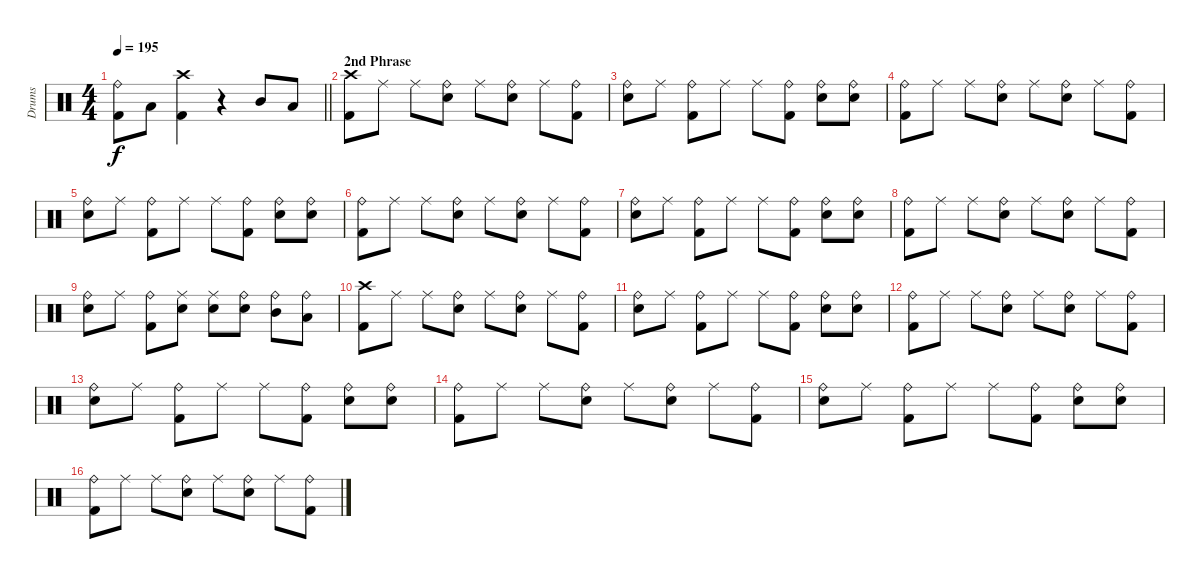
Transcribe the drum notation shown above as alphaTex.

\track ("Drums" "Drums") {instrument percussion}
\staff {score}
\articulation defaults
\ts (4 4)
\tempo 195
\clef neutral
\barLineRight lightlight
\ks c
("Ride (bell)" "Kick (hit) 2").8{dy f} "Low Floor Tom (hit)".8 ("Crash high (hit)" "Kick (hit) 2").4 r.4 "Mid Tom (hit)".8 "Low Floor Tom (hit)".8 |
\section ("" "2nd Phrase")
("Crash high (hit)" "Kick (hit) 2").8 "Ride (middle)".8 "Ride (middle)".8 ("Ride (bell)" "Snare (hit) 2").8 "Ride (middle)".8 ("Ride (bell)" "Snare (hit) 2").8 "Ride (middle)".8 ("Ride (bell)" "Kick (hit) 2").8 |
("Ride (bell)" "Snare (hit) 2").8 "Ride (middle)".8 ("Ride (bell)" "Kick (hit) 2").8 "Ride (middle)".8 "Ride (middle)".8 ("Ride (bell)" "Kick (hit) 2").8 ("Ride (bell)" "Snare (hit) 2").8 ("Ride (bell)" "Snare (hit) 2").8 |
("Ride (bell)" "Kick (hit) 2").8 "Ride (middle)".8 "Ride (middle)".8 ("Ride (bell)" "Snare (hit) 2").8 "Ride (middle)".8 ("Ride (bell)" "Snare (hit) 2").8 "Ride (middle)".8 ("Ride (bell)" "Kick (hit) 2").8 |
("Ride (bell)" "Snare (hit) 2").8 "Ride (middle)".8 ("Ride (bell)" "Kick (hit) 2").8 "Ride (middle)".8 "Ride (middle)".8 ("Ride (bell)" "Kick (hit) 2").8 ("Ride (bell)" "Snare (hit) 2").8 ("Ride (bell)" "Snare (hit) 2").8 |
("Ride (bell)" "Kick (hit) 2").8 "Ride (middle)".8 "Ride (middle)".8 ("Ride (bell)" "Snare (hit) 2").8 "Ride (middle)".8 ("Ride (bell)" "Snare (hit) 2").8 "Ride (middle)".8 ("Ride (bell)" "Kick (hit) 2").8 |
("Ride (bell)" "Snare (hit) 2").8 "Ride (middle)".8 ("Ride (bell)" "Kick (hit) 2").8 "Ride (middle)".8 "Ride (middle)".8 ("Ride (bell)" "Kick (hit) 2").8 ("Ride (bell)" "Snare (hit) 2").8 ("Ride (bell)" "Snare (hit) 2").8 |
("Ride (bell)" "Kick (hit) 2").8 "Ride (middle)".8 "Ride (middle)".8 ("Ride (bell)" "Snare (hit) 2").8 "Ride (middle)".8 ("Ride (bell)" "Snare (hit) 2").8 "Ride (middle)".8 ("Ride (bell)" "Kick (hit) 2").8 |
("Ride (bell)" "Snare (hit) 2").8 "Ride (middle)".8 ("Ride (bell)" "Kick (hit) 2").8 ("Ride (middle)" "Snare (hit) 2").8 ("Ride (middle)" "Snare (hit) 2").8 ("Ride (bell)" "Snare (hit) 2").8 ("Ride (bell)" "Mid Tom (hit)").8 ("Ride (bell)" "Low Floor Tom (hit)").8 |
("Crash high (hit)" "Kick (hit) 2").8 "Ride (middle)".8 "Ride (middle)".8 ("Ride (bell)" "Snare (hit) 2").8 "Ride (middle)".8 ("Ride (bell)" "Snare (hit) 2").8 "Ride (middle)".8 ("Ride (bell)" "Kick (hit) 2").8 |
("Ride (bell)" "Snare (hit) 2").8 "Ride (middle)".8 ("Ride (bell)" "Kick (hit) 2").8 "Ride (middle)".8 "Ride (middle)".8 ("Ride (bell)" "Kick (hit) 2").8 ("Ride (bell)" "Snare (hit) 2").8 ("Ride (bell)" "Snare (hit) 2").8 |
("Ride (bell)" "Kick (hit) 2").8 "Ride (middle)".8 "Ride (middle)".8 ("Ride (bell)" "Snare (hit) 2").8 "Ride (middle)".8 ("Ride (bell)" "Snare (hit) 2").8 "Ride (middle)".8 ("Ride (bell)" "Kick (hit) 2").8 |
("Ride (bell)" "Snare (hit) 2").8 "Ride (middle)".8 ("Ride (bell)" "Kick (hit) 2").8 "Ride (middle)".8 "Ride (middle)".8 ("Ride (bell)" "Kick (hit) 2").8 ("Ride (bell)" "Snare (hit) 2").8 ("Ride (bell)" "Snare (hit) 2").8 |
("Ride (bell)" "Kick (hit) 2").8 "Ride (middle)".8 "Ride (middle)".8 ("Ride (bell)" "Snare (hit) 2").8 "Ride (middle)".8 ("Ride (bell)" "Snare (hit) 2").8 "Ride (middle)".8 ("Ride (bell)" "Kick (hit) 2").8 |
("Ride (bell)" "Snare (hit) 2").8 "Ride (middle)".8 ("Ride (bell)" "Kick (hit) 2").8 "Ride (middle)".8 "Ride (middle)".8 ("Ride (bell)" "Kick (hit) 2").8 ("Ride (bell)" "Snare (hit) 2").8 ("Ride (bell)" "Snare (hit) 2").8 |
("Ride (bell)" "Kick (hit) 2").8 "Ride (middle)".8 "Ride (middle)".8 ("Ride (bell)" "Snare (hit) 2").8 "Ride (middle)".8 ("Ride (bell)" "Snare (hit) 2").8 "Ride (middle)".8 ("Ride (bell)" "Kick (hit) 2").8
